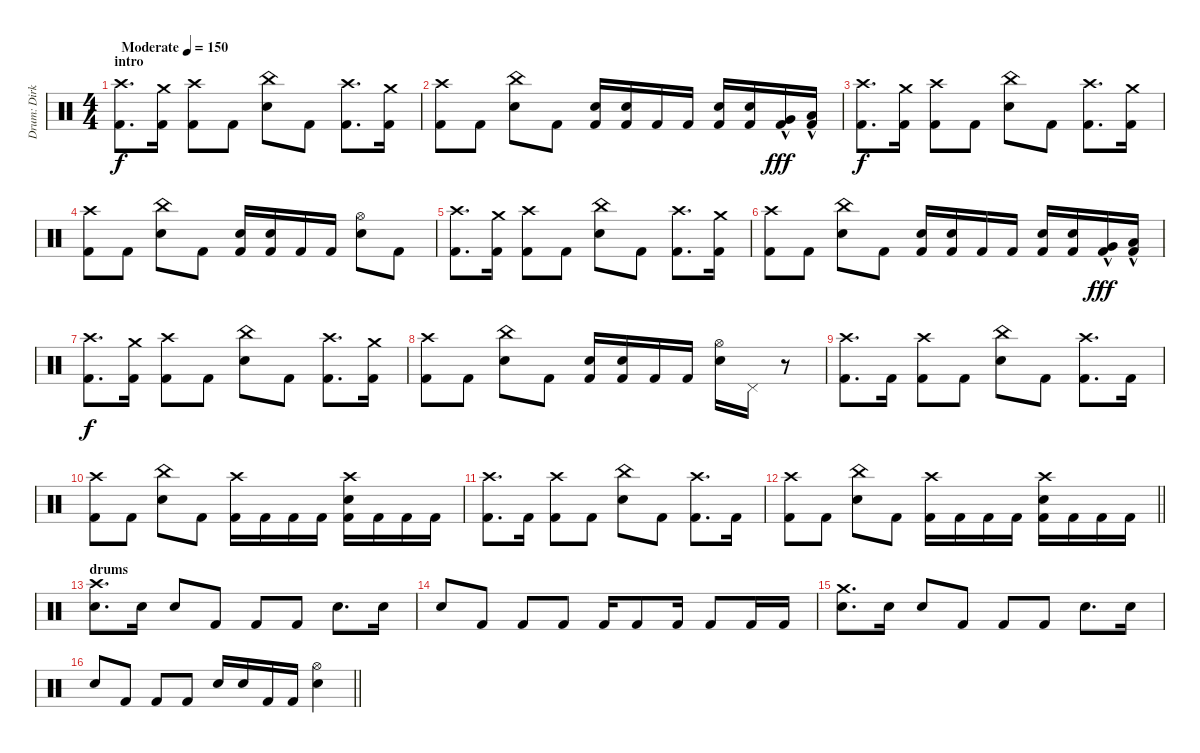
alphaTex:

\track ("Drum: Dirk" "Drum: Dirk") {instrument percussion}
\staff {score}
\articulation defaults
\ts (4 4)
\section ("" "intro")
\tempo (150 "Moderate")
\clef neutral
\ks c
("Crash high (hit)" "Kick (hit) 2").8{d dy f} ("Crash medium (hit)" "Kick (hit) 2").16 ("Crash high (hit)" "Kick (hit) 2").8 "Kick (hit) 2".8 ("China (hit)" "Electric Snare (hit)").8 "Kick (hit) 2".8 ("Crash high (hit)" "Kick (hit) 2").8{d} ("Crash medium (hit)" "Kick (hit) 2").16 |
("Crash high (hit)" "Kick (hit) 2").8 "Kick (hit) 2".8 ("China (hit)" "Electric Snare (hit)").8 "Kick (hit) 2".8 ("Electric Snare (hit)" "Kick (hit) 2").16 ("Electric Snare (hit)" "Kick (hit) 2").16 "Kick (hit) 2".16 "Kick (hit) 2".16 ("Electric Snare (hit)" "Kick (hit) 2").16 ("Electric Snare (hit)" "Kick (hit) 2").16 ("Very Low Tom (hit)"{hac} "Kick (hit) 2").16{dy fff} ("Low Tom (hit)"{hac} "Kick (hit) 2").16 |
("Crash high (hit)" "Kick (hit) 2").8{d dy f} ("Crash medium (hit)" "Kick (hit) 2").16 ("Crash high (hit)" "Kick (hit) 2").8 "Kick (hit) 2".8 ("China (hit)" "Electric Snare (hit)").8 "Kick (hit) 2".8 ("Crash high (hit)" "Kick (hit) 2").8{d} ("Crash medium (hit)" "Kick (hit) 2").16 |
("Crash high (hit)" "Kick (hit) 2").8 "Kick (hit) 2".8 ("China (hit)" "Electric Snare (hit)").8 "Kick (hit) 2".8 ("Electric Snare (hit)" "Kick (hit) 2").16 ("Electric Snare (hit)" "Kick (hit) 2").16 "Kick (hit) 2".16 "Kick (hit) 2".16 ("Hi-Hat (open)" "Electric Snare (hit)").8 "Kick (hit) 2".8 |
("Crash high (hit)" "Kick (hit) 2").8{d} ("Crash medium (hit)" "Kick (hit) 2").16 ("Crash high (hit)" "Kick (hit) 2").8 "Kick (hit) 2".8 ("China (hit)" "Electric Snare (hit)").8 "Kick (hit) 2".8 ("Crash high (hit)" "Kick (hit) 2").8{d} ("Crash medium (hit)" "Kick (hit) 2").16 |
("Crash high (hit)" "Kick (hit) 2").8 "Kick (hit) 2".8 ("China (hit)" "Electric Snare (hit)").8 "Kick (hit) 2".8 ("Electric Snare (hit)" "Kick (hit) 2").16 ("Electric Snare (hit)" "Kick (hit) 2").16 "Kick (hit) 2".16 "Kick (hit) 2".16 ("Electric Snare (hit)" "Kick (hit) 2").16 ("Electric Snare (hit)" "Kick (hit) 2").16 ("Very Low Tom (hit)"{hac} "Kick (hit) 2").16{dy fff} ("Low Tom (hit)"{hac} "Kick (hit) 2").16 |
("Crash high (hit)" "Kick (hit) 2").8{d dy f} ("Crash medium (hit)" "Kick (hit) 2").16 ("Crash high (hit)" "Kick (hit) 2").8 "Kick (hit) 2".8 ("China (hit)" "Electric Snare (hit)").8 "Kick (hit) 2".8 ("Crash high (hit)" "Kick (hit) 2").8{d} ("Crash medium (hit)" "Kick (hit) 2").16 |
("Crash high (hit)" "Kick (hit) 2").8 "Kick (hit) 2".8 ("China (hit)" "Electric Snare (hit)").8 "Kick (hit) 2".8 ("Electric Snare (hit)" "Kick (hit) 2").16 ("Electric Snare (hit)" "Kick (hit) 2").16 "Kick (hit) 2".16 "Kick (hit) 2".16 ("Hi-Hat (open)" "Electric Snare (hit)").16 "Pedal Hi-Hat (hit)".16 r.8 |
("Crash high (hit)" "Kick (hit) 2").8{d} "Kick (hit) 2".16 ("Crash high (hit)" "Kick (hit) 2").8 "Kick (hit) 2".8 ("China (hit)" "Electric Snare (hit)").8 "Kick (hit) 2".8 ("Crash high (hit)" "Kick (hit) 2").8{d} "Kick (hit) 2".16 |
("Crash high (hit)" "Kick (hit) 2").8 "Kick (hit) 2".8 ("China (hit)" "Electric Snare (hit)").8 "Kick (hit) 2".8 ("Crash high (hit)" "Kick (hit) 2").16 "Kick (hit) 2".16 "Kick (hit) 2".16 "Kick (hit) 2".16 ("Crash high (hit)" "Electric Snare (hit)" "Kick (hit) 2").16 "Kick (hit) 2".16 "Kick (hit) 2".16 "Kick (hit) 2".16 |
("Crash high (hit)" "Kick (hit) 2").8{d} "Kick (hit) 2".16 ("Crash high (hit)" "Kick (hit) 2").8 "Kick (hit) 2".8 ("China (hit)" "Electric Snare (hit)").8 "Kick (hit) 2".8 ("Crash high (hit)" "Kick (hit) 2").8{d} "Kick (hit) 2".16 |
\barLineRight lightlight
("Crash high (hit)" "Kick (hit) 2").8 "Kick (hit) 2".8 ("China (hit)" "Electric Snare (hit)").8 "Kick (hit) 2".8 ("Crash high (hit)" "Kick (hit) 2").16 "Kick (hit) 2".16 "Kick (hit) 2".16 "Kick (hit) 2".16 ("Crash high (hit)" "Electric Snare (hit)" "Kick (hit) 2").16 "Kick (hit) 2".16 "Kick (hit) 2".16 "Kick (hit) 2".16 |
\section ("" "drums")
("Crash high (hit)" "Electric Snare (hit)").8{d} "Electric Snare (hit)".16 "Electric Snare (hit)".8 "Kick (hit) 2".8 "Kick (hit) 2".8 "Kick (hit) 2".8 "Electric Snare (hit)".8{d} "Electric Snare (hit)".16 |
"Electric Snare (hit)".8 "Kick (hit) 2".8 "Kick (hit) 2".8 "Kick (hit) 2".8 "Kick (hit) 2".16 "Kick (hit) 2".8 "Kick (hit) 2".16 "Kick (hit) 2".8 "Kick (hit) 2".16 "Kick (hit) 2".16 |
("Crash medium (hit)" "Electric Snare (hit)").8{d} "Electric Snare (hit)".16 "Electric Snare (hit)".8 "Kick (hit) 2".8 "Kick (hit) 2".8 "Kick (hit) 2".8 "Electric Snare (hit)".8{d} "Electric Snare (hit)".16 |
\barLineRight lightlight "Electric Snare (hit)".8 "Kick (hit) 2".8 "Kick (hit) 2".8 "Kick (hit) 2".8 "Electric Snare (hit)".16 "Electric Snare (hit)".16 "Kick (hit) 2".16 "Kick (hit) 2".16
("Hi-Hat (open)" "Electric Snare (hit)").4
